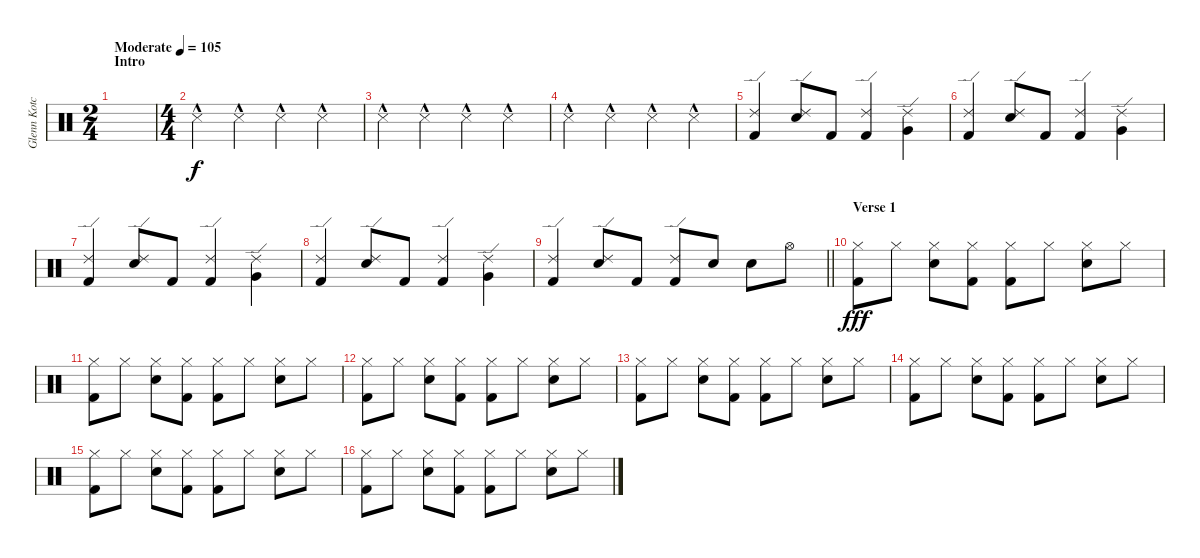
\track ("Glenn Kotche" "Glenn Kotc") {mute instrument percussion}
\staff {score}
\articulation defaults
\ts (2 4)
\section ("" "Intro")
\tempo (105 "Moderate")
\clef neutral
\ks c
|
\ts (4 4)
"Snare (side stick) 3"{hac}.4 "Snare (side stick) 3"{hac}.4 "Snare (side stick) 3"{hac}.4 "Snare (side stick) 3"{hac}.4 |
"Snare (side stick) 3"{hac}.4 "Snare (side stick) 3"{hac}.4 "Snare (side stick) 3"{hac}.4 "Snare (side stick) 3"{hac}.4 |
"Snare (side stick) 3"{hac}.4 "Snare (side stick) 3"{hac}.4 "Snare (side stick) 3"{hac}.4 "Snare (side stick) 3"{hac}.4 |
("Ride (edge) 2" "Kick (hit) 2").4{dy f} ("Ride (edge) 2" "Snare (hit) 2").8 "Kick (hit) 2".8 ("Ride (edge) 2" "Kick (hit) 2").4 ("Ride (edge) 2" "Very Low Tom (hit)").4 |
("Ride (edge) 2" "Kick (hit) 2").4 ("Ride (edge) 2" "Snare (hit) 2").8 "Kick (hit) 2".8 ("Ride (edge) 2" "Kick (hit) 2").4 ("Ride (edge) 2" "Very Low Tom (hit)").4 |
("Ride (edge) 2" "Kick (hit) 2").4 ("Ride (edge) 2" "Snare (hit) 2").8 "Kick (hit) 2".8 ("Ride (edge) 2" "Kick (hit) 2").4 ("Ride (edge) 2" "Very Low Tom (hit)").4 |
("Ride (edge) 2" "Kick (hit) 2").4 ("Ride (edge) 2" "Snare (hit) 2").8 "Kick (hit) 2".8 ("Ride (edge) 2" "Kick (hit) 2").4 ("Ride (edge) 2" "Very Low Tom (hit)").4 |
\barLineRight lightlight
("Ride (edge) 2" "Kick (hit) 2").4 ("Ride (edge) 2" "Snare (hit) 2").8 "Kick (hit) 2".8 ("Ride (edge) 2" "Kick (hit) 2").8 "Snare (hit) 2".8 "Snare (hit) 2".8 "Hi-Hat (open)".8 |
\section ("" "Verse 1")
("Hi-Hat (closed)" "Kick (hit) 2").8{dy fff} "Hi-Hat (closed)".8 ("Hi-Hat (closed)" "Electric Snare (hit)").8 ("Hi-Hat (closed)" "Kick (hit) 2").8 ("Hi-Hat (closed)" "Kick (hit) 2").8 "Hi-Hat (closed)".8 ("Hi-Hat (closed)" "Electric Snare (hit)").8 "Hi-Hat (closed)".8 |
("Hi-Hat (closed)" "Kick (hit) 2").8 "Hi-Hat (closed)".8 ("Hi-Hat (closed)" "Electric Snare (hit)").8 ("Hi-Hat (closed)" "Kick (hit) 2").8 ("Hi-Hat (closed)" "Kick (hit) 2").8 "Hi-Hat (closed)".8 ("Hi-Hat (closed)" "Electric Snare (hit)").8 "Hi-Hat (closed)".8 |
("Hi-Hat (closed)" "Kick (hit) 2").8 "Hi-Hat (closed)".8 ("Hi-Hat (closed)" "Electric Snare (hit)").8 ("Hi-Hat (closed)" "Kick (hit) 2").8 ("Hi-Hat (closed)" "Kick (hit) 2").8 "Hi-Hat (closed)".8 ("Hi-Hat (closed)" "Electric Snare (hit)").8 "Hi-Hat (closed)".8 |
("Hi-Hat (closed)" "Kick (hit) 2").8 "Hi-Hat (closed)".8 ("Hi-Hat (closed)" "Electric Snare (hit)").8 ("Hi-Hat (closed)" "Kick (hit) 2").8 ("Hi-Hat (closed)" "Kick (hit) 2").8 "Hi-Hat (closed)".8 ("Hi-Hat (closed)" "Electric Snare (hit)").8 "Hi-Hat (closed)".8 |
("Hi-Hat (closed)" "Kick (hit) 2").8 "Hi-Hat (closed)".8 ("Hi-Hat (closed)" "Electric Snare (hit)").8 ("Hi-Hat (closed)" "Kick (hit) 2").8 ("Hi-Hat (closed)" "Kick (hit) 2").8 "Hi-Hat (closed)".8 ("Hi-Hat (closed)" "Electric Snare (hit)").8 "Hi-Hat (closed)".8 |
("Hi-Hat (closed)" "Kick (hit) 2").8 "Hi-Hat (closed)".8 ("Hi-Hat (closed)" "Electric Snare (hit)").8 ("Hi-Hat (closed)" "Kick (hit) 2").8 ("Hi-Hat (closed)" "Kick (hit) 2").8 "Hi-Hat (closed)".8 ("Hi-Hat (closed)" "Electric Snare (hit)").8 "Hi-Hat (closed)".8 |
("Hi-Hat (closed)" "Kick (hit) 2").8 "Hi-Hat (closed)".8 ("Hi-Hat (closed)" "Electric Snare (hit)").8 ("Hi-Hat (closed)" "Kick (hit) 2").8 ("Hi-Hat (closed)" "Kick (hit) 2").8 "Hi-Hat (closed)".8 ("Hi-Hat (closed)" "Electric Snare (hit)").8 "Hi-Hat (closed)".8
